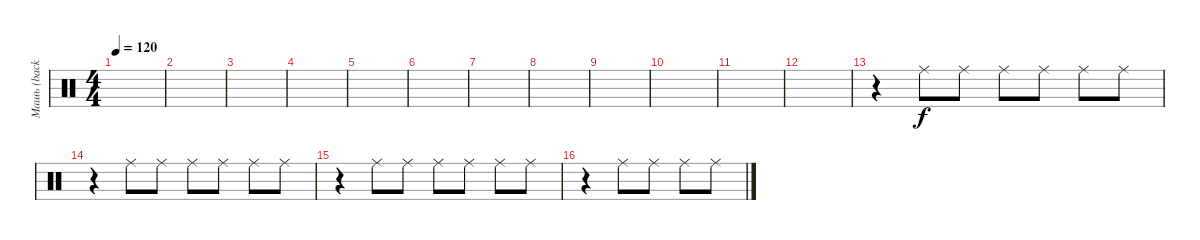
\track ("Машь (backpercussion)" "Машь (back") {instrument percussion}
\staff {score}
\articulation defaults
\ts (4 4)
\tempo 120
\clef neutral
\ks c
|
|
|
|
|
|
|
|
|
|
|
|
r.4 "Ride (middle)".8 "Ride (middle)".8 "Ride (middle)".8 "Ride (middle)".8 "Ride (middle)".8 "Ride (middle)".8 |
r.4 "Ride (middle)".8 "Ride (middle)".8 "Ride (middle)".8 "Ride (middle)".8 "Ride (middle)".8 "Ride (middle)".8 |
r.4 "Ride (middle)".8 "Ride (middle)".8 "Ride (middle)".8 "Ride (middle)".8 "Ride (middle)".8 "Ride (middle)".8 |
r.4 "Ride (middle)".8 "Ride (middle)".8 "Ride (middle)".8 "Ride (middle)".8
